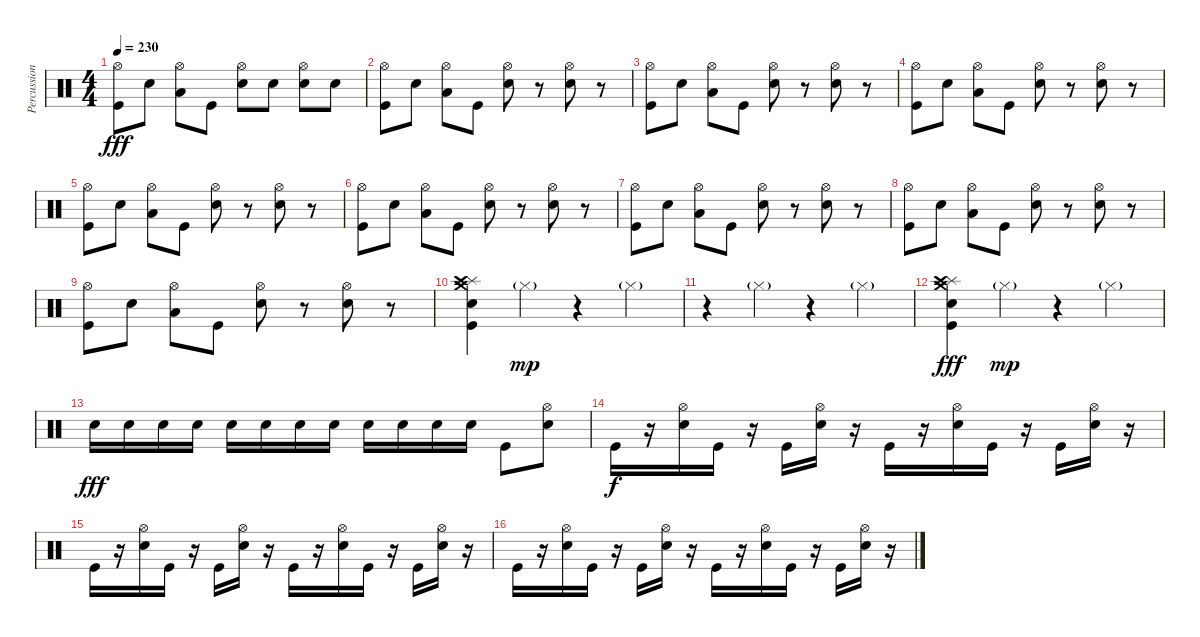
\track ("Percussion" "Percussion") {instrument percussion}
\staff
\articulation defaults
\ts (4 4)
\tempo 230
\clef neutral
\ks c
("Hi-Hat (open)" "Kick (hit)").8{dy fff} "Electric Snare (hit)".8 ("Hi-Hat (open)" "Low Floor Tom (hit)").8 "Kick (hit)".8 ("Hi-Hat (open)" "Electric Snare (hit)").8 "Electric Snare (hit)".8 ("Hi-Hat (open)" "Electric Snare (hit)").8 "Electric Snare (hit)".8 |
("Hi-Hat (open)" "Kick (hit)").8 "Electric Snare (hit)".8 ("Hi-Hat (open)" "Low Floor Tom (hit)").8 "Kick (hit)".8 ("Hi-Hat (open)" "Electric Snare (hit)").8 r.8 ("Hi-Hat (open)" "Electric Snare (hit)").8 r.8 |
("Hi-Hat (open)" "Kick (hit)").8 "Electric Snare (hit)".8 ("Hi-Hat (open)" "Low Floor Tom (hit)").8 "Kick (hit)".8 ("Hi-Hat (open)" "Electric Snare (hit)").8 r.8 ("Hi-Hat (open)" "Electric Snare (hit)").8 r.8 |
("Hi-Hat (open)" "Kick (hit)").8 "Electric Snare (hit)".8 ("Hi-Hat (open)" "Low Floor Tom (hit)").8 "Kick (hit)".8 ("Hi-Hat (open)" "Electric Snare (hit)").8 r.8 ("Hi-Hat (open)" "Electric Snare (hit)").8 r.8 |
("Hi-Hat (open)" "Kick (hit)").8 "Electric Snare (hit)".8 ("Hi-Hat (open)" "Low Floor Tom (hit)").8 "Kick (hit)".8 ("Hi-Hat (open)" "Electric Snare (hit)").8 r.8 ("Hi-Hat (open)" "Electric Snare (hit)").8 r.8 |
("Hi-Hat (open)" "Kick (hit)").8 "Electric Snare (hit)".8 ("Hi-Hat (open)" "Low Floor Tom (hit)").8 "Kick (hit)".8 ("Hi-Hat (open)" "Electric Snare (hit)").8 r.8 ("Hi-Hat (open)" "Electric Snare (hit)").8 r.8 |
("Hi-Hat (open)" "Kick (hit)").8 "Electric Snare (hit)".8 ("Hi-Hat (open)" "Low Floor Tom (hit)").8 "Kick (hit)".8 ("Hi-Hat (open)" "Electric Snare (hit)").8 r.8 ("Hi-Hat (open)" "Electric Snare (hit)").8 r.8 |
("Hi-Hat (open)" "Kick (hit)").8 "Electric Snare (hit)".8 ("Hi-Hat (open)" "Low Floor Tom (hit)").8 "Kick (hit)".8 ("Hi-Hat (open)" "Electric Snare (hit)").8 r.8 ("Hi-Hat (open)" "Electric Snare (hit)").8 r.8 |
("Hi-Hat (open)" "Kick (hit)").8 "Electric Snare (hit)".8 ("Hi-Hat (open)" "Low Floor Tom (hit)").8 "Kick (hit)".8 ("Hi-Hat (open)" "Electric Snare (hit)").8 r.8 ("Hi-Hat (open)" "Electric Snare (hit)").8 r.8 |
("Crash medium (hit)" "Splash (hit)" "Crash high (hit)" "Electric Snare (hit)" "Kick (hit)").4 "Hi-Hat (closed)"{g}.4{dy mp} r.4 "Hi-Hat (closed)"{g}.4 |
r.4 "Hi-Hat (closed)"{g}.4 r.4 "Hi-Hat (closed)"{g}.4 |
("Crash medium (hit)" "Splash (hit)" "Crash high (hit)" "Electric Snare (hit)" "Kick (hit)").4{dy fff} "Hi-Hat (closed)"{g}.4{dy mp} r.4 "Hi-Hat (closed)"{g}.4 |
"Electric Snare (hit)".16{dy fff} "Electric Snare (hit)".16{volume 10} "Electric Snare (hit)".16 "Electric Snare (hit)".16 "Electric Snare (hit)".16{volume 16} "Electric Snare (hit)".16 "Electric Snare (hit)".16 "Electric Snare (hit)".16 "Electric Snare (hit)".16 "Electric Snare (hit)".16 "Electric Snare (hit)".16 "Electric Snare (hit)".16 "Kick (hit)".8 ("Hi-Hat (open)" "Electric Snare (hit)").8 |
"Kick (hit)".16{dy f} r.16 ("Hi-Hat (open)" "Electric Snare (hit)").16 "Kick (hit)".16 r.16 "Kick (hit)".16 ("Hi-Hat (open)" "Electric Snare (hit)").16 r.16 "Kick (hit)".16 r.16 ("Hi-Hat (open)" "Electric Snare (hit)").16 "Kick (hit)".16 r.16 "Kick (hit)".16 ("Hi-Hat (open)" "Electric Snare (hit)").16 r.16 |
"Kick (hit)".16 r.16 ("Hi-Hat (open)" "Electric Snare (hit)").16 "Kick (hit)".16 r.16 "Kick (hit)".16 ("Hi-Hat (open)" "Electric Snare (hit)").16 r.16 "Kick (hit)".16 r.16 ("Hi-Hat (open)" "Electric Snare (hit)").16 "Kick (hit)".16 r.16 "Kick (hit)".16 ("Hi-Hat (open)" "Electric Snare (hit)").16 r.16 |
"Kick (hit)".16 r.16 ("Hi-Hat (open)" "Electric Snare (hit)").16 "Kick (hit)".16 r.16 "Kick (hit)".16 ("Hi-Hat (open)" "Electric Snare (hit)").16 r.16 "Kick (hit)".16 r.16 ("Hi-Hat (open)" "Electric Snare (hit)").16 "Kick (hit)".16 r.16 "Kick (hit)".16 ("Hi-Hat (open)" "Electric Snare (hit)").16 r.16
